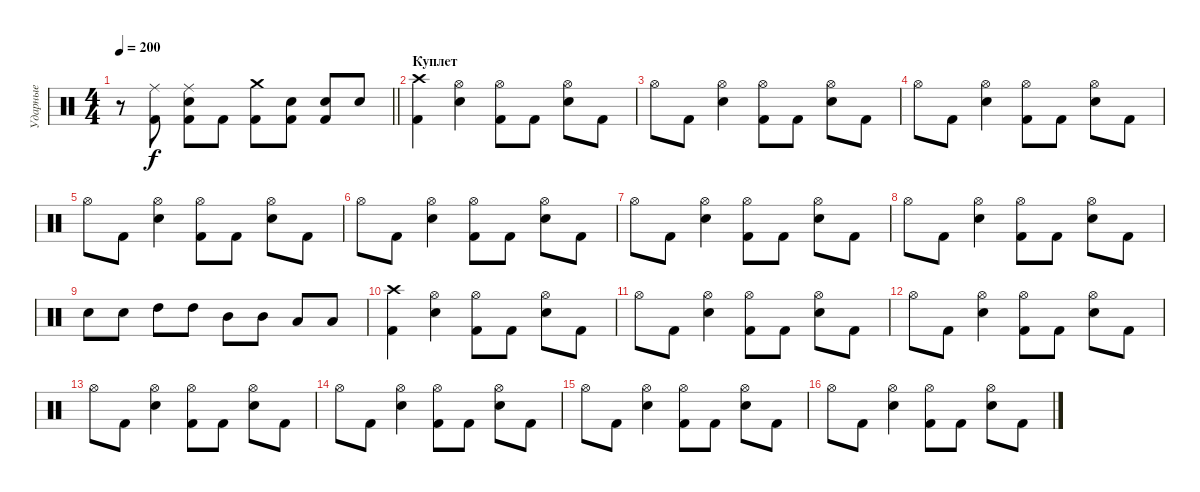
\track ("Ударные" "Ударные") {instrument percussion}
\staff {score}
\articulation defaults
\ts (4 4)
\tempo 200
\clef neutral
\barLineRight lightlight
\ks c
r.8{dy f} ("Ride (middle)" "Kick (hit) 2").8 ("Ride (middle)" "Electric Snare (hit)" "Kick (hit) 2").8 "Kick (hit) 2".8 ("Crash medium (hit)" "Kick (hit) 2").8 ("Electric Snare (hit)" "Kick (hit) 2").8 ("Electric Snare (hit)" "Kick (hit) 2").8 "Electric Snare (hit)".8 |
\section ("" "Куплет")
("Crash high (hit)" "Kick (hit) 2").4 ("Hi-Hat (open)" "Electric Snare (hit)").4 ("Hi-Hat (open)" "Kick (hit) 2").8 "Kick (hit) 2".8 ("Hi-Hat (open)" "Electric Snare (hit)").8 "Kick (hit) 2".8 |
"Hi-Hat (open)".8 "Kick (hit) 2".8 ("Hi-Hat (open)" "Electric Snare (hit)").4 ("Hi-Hat (open)" "Kick (hit) 2").8 "Kick (hit) 2".8 ("Hi-Hat (open)" "Electric Snare (hit)").8 "Kick (hit) 2".8 |
"Hi-Hat (open)".8 "Kick (hit) 2".8 ("Hi-Hat (open)" "Electric Snare (hit)").4 ("Hi-Hat (open)" "Kick (hit) 2").8 "Kick (hit) 2".8 ("Hi-Hat (open)" "Electric Snare (hit)").8 "Kick (hit) 2".8 |
"Hi-Hat (open)".8 "Kick (hit) 2".8 ("Hi-Hat (open)" "Electric Snare (hit)").4 ("Hi-Hat (open)" "Kick (hit) 2").8 "Kick (hit) 2".8 ("Hi-Hat (open)" "Electric Snare (hit)").8 "Kick (hit) 2".8 |
"Hi-Hat (open)".8 "Kick (hit) 2".8 ("Hi-Hat (open)" "Electric Snare (hit)").4 ("Hi-Hat (open)" "Kick (hit) 2").8 "Kick (hit) 2".8 ("Hi-Hat (open)" "Electric Snare (hit)").8 "Kick (hit) 2".8 |
"Hi-Hat (open)".8 "Kick (hit) 2".8 ("Hi-Hat (open)" "Electric Snare (hit)").4 ("Hi-Hat (open)" "Kick (hit) 2").8 "Kick (hit) 2".8 ("Hi-Hat (open)" "Electric Snare (hit)").8 "Kick (hit) 2".8 |
"Hi-Hat (open)".8 "Kick (hit) 2".8 ("Hi-Hat (open)" "Electric Snare (hit)").4 ("Hi-Hat (open)" "Kick (hit) 2").8 "Kick (hit) 2".8 ("Hi-Hat (open)" "Electric Snare (hit)").8 "Kick (hit) 2".8 |
"Electric Snare (hit)".8 "Electric Snare (hit)".8 "High Tom (hit)".8 "High Tom (hit)".8 "Mid Tom (hit)".8 "Mid Tom (hit)".8 "Low Tom (hit)".8 "Low Tom (hit)".8 |
("Crash high (hit)" "Kick (hit) 2").4 ("Hi-Hat (open)" "Electric Snare (hit)").4 ("Hi-Hat (open)" "Kick (hit) 2").8 "Kick (hit) 2".8 ("Hi-Hat (open)" "Electric Snare (hit)").8 "Kick (hit) 2".8 |
"Hi-Hat (open)".8 "Kick (hit) 2".8 ("Hi-Hat (open)" "Electric Snare (hit)").4 ("Hi-Hat (open)" "Kick (hit) 2").8 "Kick (hit) 2".8 ("Hi-Hat (open)" "Electric Snare (hit)").8 "Kick (hit) 2".8 |
"Hi-Hat (open)".8 "Kick (hit) 2".8 ("Hi-Hat (open)" "Electric Snare (hit)").4 ("Hi-Hat (open)" "Kick (hit) 2").8 "Kick (hit) 2".8 ("Hi-Hat (open)" "Electric Snare (hit)").8 "Kick (hit) 2".8 |
"Hi-Hat (open)".8 "Kick (hit) 2".8 ("Hi-Hat (open)" "Electric Snare (hit)").4 ("Hi-Hat (open)" "Kick (hit) 2").8 "Kick (hit) 2".8 ("Hi-Hat (open)" "Electric Snare (hit)").8 "Kick (hit) 2".8 |
"Hi-Hat (open)".8 "Kick (hit) 2".8 ("Hi-Hat (open)" "Electric Snare (hit)").4 ("Hi-Hat (open)" "Kick (hit) 2").8 "Kick (hit) 2".8 ("Hi-Hat (open)" "Electric Snare (hit)").8 "Kick (hit) 2".8 |
"Hi-Hat (open)".8 "Kick (hit) 2".8 ("Hi-Hat (open)" "Electric Snare (hit)").4 ("Hi-Hat (open)" "Kick (hit) 2").8 "Kick (hit) 2".8 ("Hi-Hat (open)" "Electric Snare (hit)").8 "Kick (hit) 2".8 |
"Hi-Hat (open)".8 "Kick (hit) 2".8 ("Hi-Hat (open)" "Electric Snare (hit)").4 ("Hi-Hat (open)" "Kick (hit) 2").8 "Kick (hit) 2".8 ("Hi-Hat (open)" "Electric Snare (hit)").8 "Kick (hit) 2".8
